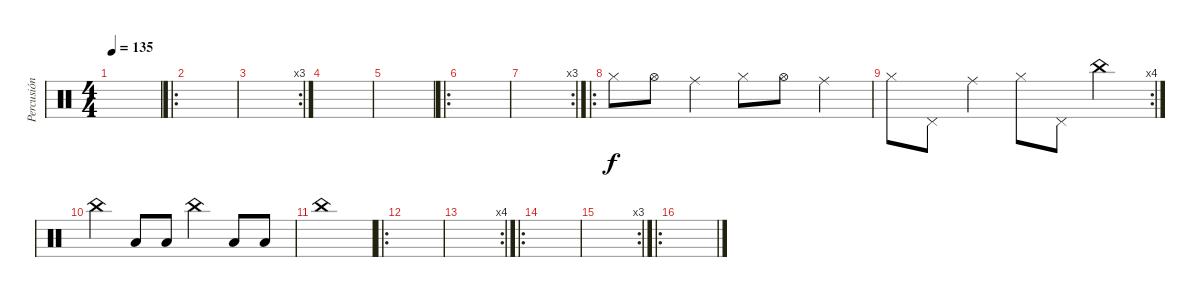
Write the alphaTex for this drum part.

\track ("Percusión 2" "Percusión ") {instrument percussion}
\staff {score}
\articulation defaults
\ts (4 4)
\tempo 135
\clef neutral
\ks c
|
\ro
|
\rc 3
|
|
|
\ro
|
\rc 3
|
\ro "Hi-Hat (closed)".8 "Hi-Hat (open)".8 "Ride (middle)".4 "Hi-Hat (closed)".8 "Hi-Hat (open)".8 "Ride (middle)".4
|
\rc 4 "Hi-Hat (closed)".8 "Pedal Hi-Hat (hit)".8 "Ride (middle)".4 "Hi-Hat (closed)".8 "Pedal Hi-Hat (hit)".8 "China (hit)".4
|
"China (hit)".4 "Low Floor Tom (hit)".8 "Low Floor Tom (hit)".8 "China (hit)".4 "Low Floor Tom (hit)".8 "Low Floor Tom (hit)".8 |
"China (hit)".1 |
\ro
|
\rc 4
|
\ro
|
\rc 3
|
\ro
